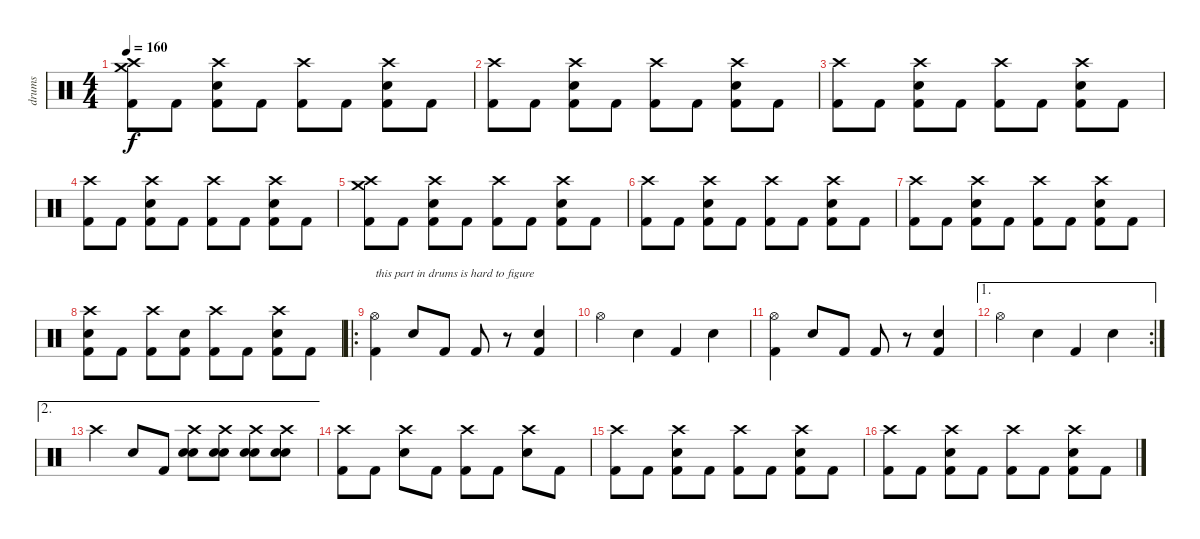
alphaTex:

\track ("drums" "drums") {instrument percussion}
\staff {score}
\articulation defaults
\ts (4 4)
\tempo 160
\clef neutral
\ks c
("Crash high (hit)" "Crash medium (hit)" "Kick (hit) 2").8{dy f} "Kick (hit) 2".8 ("Crash high (hit)" "Electric Snare (hit)" "Kick (hit) 2").8 "Kick (hit) 2".8 ("Crash high (hit)" "Kick (hit) 2").8 "Kick (hit) 2".8 ("Crash high (hit)" "Electric Snare (hit)" "Kick (hit) 2").8 "Kick (hit) 2".8 |
("Crash high (hit)" "Kick (hit) 2").8 "Kick (hit) 2".8 ("Crash high (hit)" "Electric Snare (hit)" "Kick (hit) 2").8 "Kick (hit) 2".8 ("Crash high (hit)" "Kick (hit) 2").8 "Kick (hit) 2".8 ("Crash high (hit)" "Electric Snare (hit)" "Kick (hit) 2").8 "Kick (hit) 2".8 |
("Crash high (hit)" "Kick (hit) 2").8 "Kick (hit) 2".8 ("Crash high (hit)" "Electric Snare (hit)" "Kick (hit) 2").8 "Kick (hit) 2".8 ("Crash high (hit)" "Kick (hit) 2").8 "Kick (hit) 2".8 ("Crash high (hit)" "Electric Snare (hit)" "Kick (hit) 2").8 "Kick (hit) 2".8 |
("Crash high (hit)" "Kick (hit) 2").8 "Kick (hit) 2".8 ("Crash high (hit)" "Electric Snare (hit)" "Kick (hit) 2").8 "Kick (hit) 2".8 ("Crash high (hit)" "Kick (hit) 2").8 "Kick (hit) 2".8 ("Crash high (hit)" "Electric Snare (hit)" "Kick (hit) 2").8 "Kick (hit) 2".8 |
("Crash high (hit)" "Crash medium (hit)" "Kick (hit) 2").8 "Kick (hit) 2".8 ("Crash high (hit)" "Electric Snare (hit)" "Kick (hit) 2").8 "Kick (hit) 2".8 ("Crash high (hit)" "Kick (hit) 2").8 "Kick (hit) 2".8 ("Crash high (hit)" "Electric Snare (hit)" "Kick (hit) 2").8 "Kick (hit) 2".8 |
("Crash high (hit)" "Kick (hit) 2").8 "Kick (hit) 2".8 ("Crash high (hit)" "Electric Snare (hit)" "Kick (hit) 2").8 "Kick (hit) 2".8 ("Crash high (hit)" "Kick (hit) 2").8 "Kick (hit) 2".8 ("Crash high (hit)" "Electric Snare (hit)" "Kick (hit) 2").8 "Kick (hit) 2".8 |
("Crash high (hit)" "Kick (hit) 2").8 "Kick (hit) 2".8 ("Crash high (hit)" "Electric Snare (hit)" "Kick (hit) 2").8 "Kick (hit) 2".8 ("Crash high (hit)" "Kick (hit) 2").8 "Kick (hit) 2".8 ("Crash high (hit)" "Electric Snare (hit)" "Kick (hit) 2").8 "Kick (hit) 2".8 |
("Crash high (hit)" "Electric Snare (hit)" "Kick (hit) 2").8 "Kick (hit) 2".8 ("Crash high (hit)" "Kick (hit) 2").8 ("Electric Snare (hit)" "Kick (hit) 2").8 ("Crash high (hit)" "Kick (hit) 2").8 "Kick (hit) 2".8 ("Crash high (hit)" "Electric Snare (hit)" "Kick (hit) 2").8 "Kick (hit) 2".8 |
\ro
("Hi-Hat (open)" "Kick (hit) 2").4{txt "this part in drums is hard to figure"} "Electric Snare (hit)".8 "Kick (hit) 2".8 "Kick (hit) 2".8 r.8 ("Electric Snare (hit)" "Kick (hit) 2").4 |
"Hi-Hat (open)".4 "Electric Snare (hit)".4 "Kick (hit) 2".4 "Electric Snare (hit)".4 |
("Hi-Hat (open)" "Kick (hit) 2").4 "Electric Snare (hit)".8 "Kick (hit) 2".8 "Kick (hit) 2".8 r.8 ("Electric Snare (hit)" "Kick (hit) 2").4 |
\ae 1
\rc 2 "Hi-Hat (open)".4 "Electric Snare (hit)".4 "Kick (hit) 2".4 "Electric Snare (hit)".4
|
\ae 2 "Crash high (hit)".4 "Electric Snare (hit)".8 "Kick (hit) 2".8
("Electric Snare (hit)" "Electric Snare (hit)" "Crash high (hit)").8 ("Electric Snare (hit)" "Electric Snare (hit)" "Crash high (hit)").8 ("Electric Snare (hit)" "Electric Snare (hit)" "Crash high (hit)").8 ("Electric Snare (hit)" "Electric Snare (hit)" "Crash high (hit)").8 |
("Crash high (hit)" "Kick (hit) 2").8 "Kick (hit) 2".8 ("Crash high (hit)" "Electric Snare (hit)").8 "Kick (hit) 2".8 ("Crash high (hit)" "Kick (hit) 2").8 "Kick (hit) 2".8 ("Crash high (hit)" "Electric Snare (hit)").8 "Kick (hit) 2".8 |
("Crash high (hit)" "Kick (hit) 2").8 "Kick (hit) 2".8 ("Crash high (hit)" "Electric Snare (hit)" "Kick (hit) 2").8 "Kick (hit) 2".8 ("Crash high (hit)" "Kick (hit) 2").8 "Kick (hit) 2".8 ("Crash high (hit)" "Electric Snare (hit)" "Kick (hit) 2").8 "Kick (hit) 2".8 |
("Crash high (hit)" "Kick (hit) 2").8 "Kick (hit) 2".8 ("Crash high (hit)" "Electric Snare (hit)" "Kick (hit) 2").8 "Kick (hit) 2".8 ("Crash high (hit)" "Kick (hit) 2").8 "Kick (hit) 2".8 ("Crash high (hit)" "Electric Snare (hit)" "Kick (hit) 2").8 "Kick (hit) 2".8
